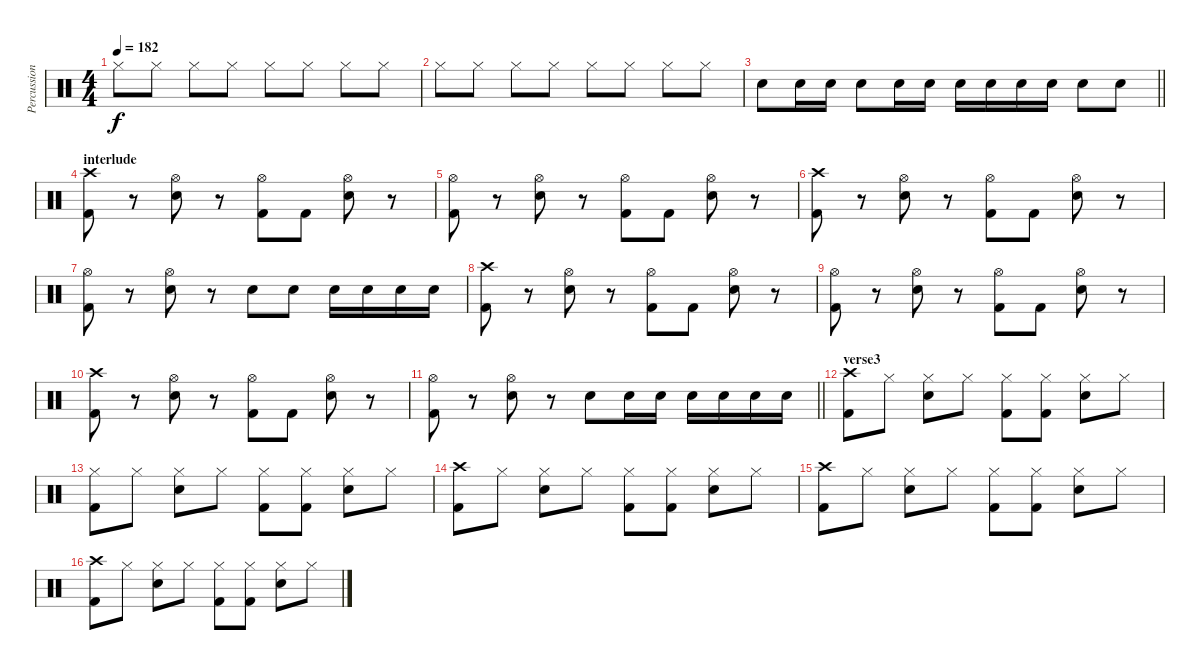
\track ("Percussion" "Percussion") {instrument percussion}
\staff {score}
\articulation defaults
\ts (4 4)
\tempo 182
\clef neutral
\ks c "Hi-Hat (closed)".8{dy f} "Hi-Hat (closed)".8 "Hi-Hat (closed)".8 "Hi-Hat (closed)".8 "Hi-Hat (closed)".8 "Hi-Hat (closed)".8 "Hi-Hat (closed)".8 "Hi-Hat (closed)".8
|
"Hi-Hat (closed)".8 "Hi-Hat (closed)".8 "Hi-Hat (closed)".8 "Hi-Hat (closed)".8 "Hi-Hat (closed)".8 "Hi-Hat (closed)".8 "Hi-Hat (closed)".8 "Hi-Hat (closed)".8 |
\barLineRight lightlight "Snare (hit) 2".8 "Snare (hit) 2".16 "Snare (hit) 2".16 "Snare (hit) 2".8 "Snare (hit) 2".16 "Snare (hit) 2".16 "Snare (hit) 2".16 "Snare (hit) 2".16 "Snare (hit) 2".16 "Snare (hit) 2".16 "Snare (hit) 2".8 "Snare (hit) 2".8
|
\section ("" "interlude")
("Crash high (hit)" "Kick (hit) 2").8 r.8 ("Hi-Hat (open)" "Snare (hit) 2").8 r.8 ("Hi-Hat (open)" "Kick (hit) 2").8 "Kick (hit) 2".8 ("Hi-Hat (open)" "Snare (hit) 2").8 r.8 |
("Hi-Hat (open)" "Kick (hit) 2").8 r.8 ("Hi-Hat (open)" "Snare (hit) 2").8 r.8 ("Hi-Hat (open)" "Kick (hit) 2").8 "Kick (hit) 2".8 ("Hi-Hat (open)" "Snare (hit) 2").8 r.8 |
("Crash high (hit)" "Kick (hit) 2").8 r.8 ("Hi-Hat (open)" "Snare (hit) 2").8 r.8 ("Hi-Hat (open)" "Kick (hit) 2").8 "Kick (hit) 2".8 ("Hi-Hat (open)" "Snare (hit) 2").8 r.8 |
("Hi-Hat (open)" "Kick (hit) 2").8 r.8 ("Hi-Hat (open)" "Snare (hit) 2").8 r.8 "Snare (hit) 2".8 "Snare (hit) 2".8 "Snare (hit) 2".16 "Snare (hit) 2".16 "Snare (hit) 2".16 "Snare (hit) 2".16 |
("Crash high (hit)" "Kick (hit) 2").8 r.8 ("Hi-Hat (open)" "Snare (hit) 2").8 r.8 ("Hi-Hat (open)" "Kick (hit) 2").8 "Kick (hit) 2".8 ("Hi-Hat (open)" "Snare (hit) 2").8 r.8 |
("Hi-Hat (open)" "Kick (hit) 2").8 r.8 ("Hi-Hat (open)" "Snare (hit) 2").8 r.8 ("Hi-Hat (open)" "Kick (hit) 2").8 "Kick (hit) 2".8 ("Hi-Hat (open)" "Snare (hit) 2").8 r.8 |
("Crash high (hit)" "Kick (hit) 2").8 r.8 ("Hi-Hat (open)" "Snare (hit) 2").8 r.8 ("Hi-Hat (open)" "Kick (hit) 2").8 "Kick (hit) 2".8 ("Hi-Hat (open)" "Snare (hit) 2").8 r.8 |
\barLineRight lightlight
("Hi-Hat (open)" "Kick (hit) 2").8 r.8 ("Hi-Hat (open)" "Snare (hit) 2").8 r.8 "Snare (hit) 2".8 "Snare (hit) 2".16 "Snare (hit) 2".16 "Snare (hit) 2".16 "Snare (hit) 2".16 "Snare (hit) 2".16 "Snare (hit) 2".16 |
\section ("" "verse3")
("Crash high (hit)" "Kick (hit) 2").8 "Hi-Hat (closed)".8 ("Hi-Hat (closed)" "Snare (hit) 2").8 "Hi-Hat (closed)".8 ("Hi-Hat (closed)" "Kick (hit) 2").8 ("Hi-Hat (closed)" "Kick (hit) 2").8 ("Hi-Hat (closed)" "Snare (hit) 2").8 "Hi-Hat (closed)".8 |
("Hi-Hat (closed)" "Kick (hit) 2").8 "Hi-Hat (closed)".8 ("Hi-Hat (closed)" "Snare (hit) 2").8 "Hi-Hat (closed)".8 ("Hi-Hat (closed)" "Kick (hit) 2").8 ("Hi-Hat (closed)" "Kick (hit) 2").8 ("Hi-Hat (closed)" "Snare (hit) 2").8 "Hi-Hat (closed)".8 |
("Crash high (hit)" "Kick (hit) 2").8 "Hi-Hat (closed)".8 ("Hi-Hat (closed)" "Snare (hit) 2").8 "Hi-Hat (closed)".8 ("Hi-Hat (closed)" "Kick (hit) 2").8 ("Hi-Hat (closed)" "Kick (hit) 2").8 ("Hi-Hat (closed)" "Snare (hit) 2").8 "Hi-Hat (closed)".8 |
("Crash high (hit)" "Kick (hit) 2").8 "Hi-Hat (closed)".8 ("Hi-Hat (closed)" "Snare (hit) 2").8 "Hi-Hat (closed)".8 ("Hi-Hat (closed)" "Kick (hit) 2").8 ("Hi-Hat (closed)" "Kick (hit) 2").8 ("Hi-Hat (closed)" "Snare (hit) 2").8 "Hi-Hat (closed)".8 |
("Crash high (hit)" "Kick (hit) 2").8 "Hi-Hat (closed)".8 ("Hi-Hat (closed)" "Snare (hit) 2").8 "Hi-Hat (closed)".8 ("Hi-Hat (closed)" "Kick (hit) 2").8 ("Hi-Hat (closed)" "Kick (hit) 2").8 ("Hi-Hat (closed)" "Snare (hit) 2").8 "Hi-Hat (closed)".8
